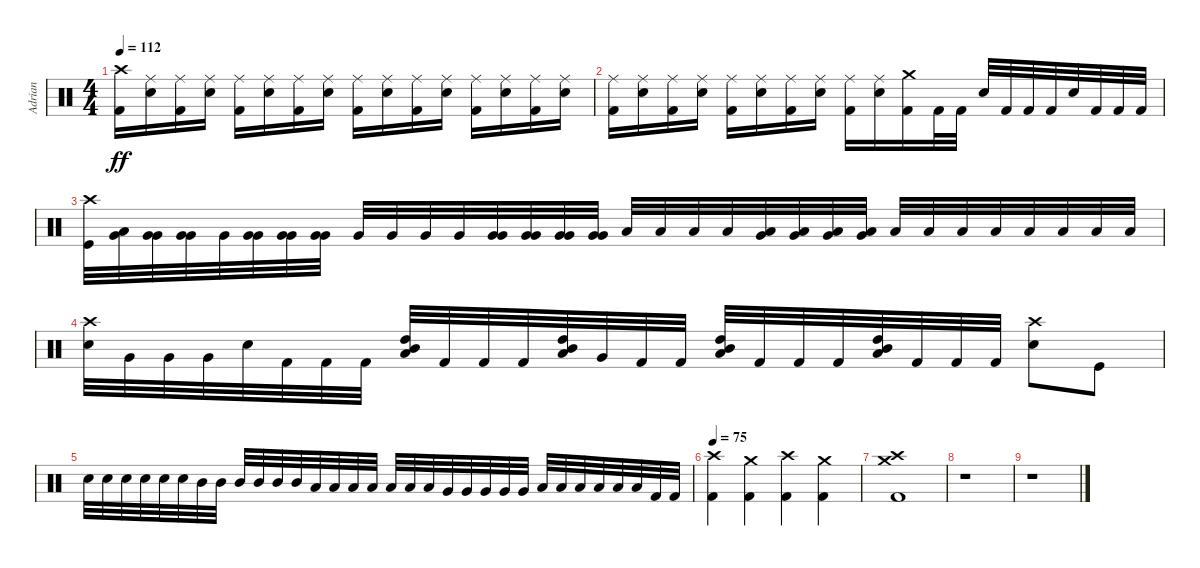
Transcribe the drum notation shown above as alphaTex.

\track ("Adrian" "Adrian") {instrument percussion}
\staff {score}
\articulation defaults
\ts (4 4)
\tempo 112
\clef neutral
\ks c
("Crash high (hit)" "Kick (hit) 2").16{dy ff} ("Ride (middle)" "Electric Snare (hit)").16 ("Ride (middle)" "Kick (hit) 2").16 ("Ride (middle)" "Electric Snare (hit)").16 ("Ride (middle)" "Kick (hit) 2").16 ("Ride (middle)" "Electric Snare (hit)").16 ("Ride (middle)" "Kick (hit) 2").16 ("Ride (middle)" "Electric Snare (hit)").16 ("Ride (middle)" "Kick (hit) 2").16 ("Ride (middle)" "Electric Snare (hit)").16 ("Ride (middle)" "Kick (hit) 2").16 ("Ride (middle)" "Electric Snare (hit)").16 ("Ride (middle)" "Kick (hit) 2").16 ("Ride (middle)" "Electric Snare (hit)").16 ("Ride (middle)" "Kick (hit) 2").16 ("Ride (middle)" "Electric Snare (hit)").16 |
("Ride (middle)" "Kick (hit) 2").16 ("Ride (middle)" "Electric Snare (hit)").16 ("Ride (middle)" "Kick (hit) 2").16 ("Ride (middle)" "Electric Snare (hit)").16 ("Ride (middle)" "Kick (hit) 2").16 ("Ride (middle)" "Electric Snare (hit)").16 ("Ride (middle)" "Kick (hit) 2").16 ("Ride (middle)" "Electric Snare (hit)").16 ("Ride (middle)" "Kick (hit) 2").16 ("Ride (middle)" "Electric Snare (hit)").16 ("Crash medium (hit)" "Kick (hit) 2").16 "Kick (hit) 2".32 "Kick (hit) 2".32 "Electric Snare (hit)".32 "Kick (hit) 2".32 "Kick (hit) 2".32 "Kick (hit) 2".32 "Electric Snare (hit)".32 "Kick (hit) 2".32 "Kick (hit) 2".32 "Kick (hit) 2".32 |
("Crash high (hit)" "Kick (hit)").32 ("Very Low Tom (hit)" "Low Tom (hit)").32 ("Very Low Tom (hit)" "Very Low Tom (hit)").32 ("Very Low Tom (hit)" "Very Low Tom (hit)").32 "Very Low Tom (hit)".32 ("Very Low Tom (hit)" "Very Low Tom (hit)").32 ("Very Low Tom (hit)" "Very Low Tom (hit)").32 ("Very Low Tom (hit)" "Very Low Tom (hit)").32 "Very Low Tom (hit)".32 "Very Low Tom (hit)".32 "Very Low Tom (hit)".32 "Very Low Tom (hit)".32 ("Very Low Tom (hit)" "Very Low Tom (hit)").32 ("Very Low Tom (hit)" "Very Low Tom (hit)").32 ("Very Low Tom (hit)" "Very Low Tom (hit)").32 ("Very Low Tom (hit)" "Very Low Tom (hit)").32 "Low Floor Tom (hit)".32 "Low Floor Tom (hit)".32 "Low Floor Tom (hit)".32 "Low Floor Tom (hit)".32 ("Low Floor Tom (hit)" "Very Low Tom (hit)").32 ("Low Floor Tom (hit)" "Very Low Tom (hit)").32 ("Low Floor Tom (hit)" "Very Low Tom (hit)").32 ("Low Floor Tom (hit)" "Very Low Tom (hit)").32 "Low Floor Tom (hit)".32 "Low Floor Tom (hit)".32 "Low Floor Tom (hit)".32 "Low Floor Tom (hit)".32 "Low Floor Tom (hit)".32 "Low Floor Tom (hit)".32 "Low Floor Tom (hit)".32 "Low Floor Tom (hit)".32 |
("Electric Snare (hit)" "Crash high (hit)").32 "Very Low Tom (hit)".32 "Very Low Tom (hit)".32 "Very Low Tom (hit)".32 "Electric Snare (hit)".32 "Kick (hit) 2".32 "Kick (hit) 2".32 "Kick (hit) 2".32 ("High Tom (hit)" "Low Tom (hit)" "Mid Tom (hit)").32 "Kick (hit) 2".32 "Kick (hit) 2".32 "Kick (hit) 2".32 ("High Tom (hit)" "Low Tom (hit)" "Mid Tom (hit)").32 "Very Low Tom (hit)".32 "Kick (hit) 2".32 "Kick (hit) 2".32 ("High Tom (hit)" "Low Tom (hit)" "Mid Tom (hit)").32 "Kick (hit) 2".32 "Kick (hit) 2".32 "Kick (hit) 2".32 ("High Tom (hit)" "Low Tom (hit)" "Mid Tom (hit)").32 "Kick (hit) 2".32 "Kick (hit) 2".32 "Kick (hit) 2".32 ("Electric Snare (hit)" "Crash high (hit)").8 "Kick (hit)".8 |
"Electric Snare (hit)".32 "Electric Snare (hit)".32 "Electric Snare (hit)".32 "Electric Snare (hit)".32 "Electric Snare (hit)".32 "Electric Snare (hit)".32 "Mid Tom (hit)".32 "Mid Tom (hit)".32 "Mid Tom (hit)".32 "Mid Tom (hit)".32 "Mid Tom (hit)".32 "Mid Tom (hit)".32 "Low Tom (hit)".32 "Low Tom (hit)".32 "Low Tom (hit)".32 "Low Tom (hit)".32 "Low Tom (hit)".32 "Low Tom (hit)".32 "Low Tom (hit)".32 "Very Low Tom (hit)".32 "Very Low Tom (hit)".32 "Very Low Tom (hit)".32 "Very Low Tom (hit)".32 "Very Low Tom (hit)".32 "Low Floor Tom (hit)".32 "Low Floor Tom (hit)".32 "Low Floor Tom (hit)".32 "Low Floor Tom (hit)".32 "Low Floor Tom (hit)".32 "Low Floor Tom (hit)".32 "Kick (hit) 2".32 "Kick (hit) 2".32 |
\tempo 75
("Crash high (hit)" "Kick (hit) 2").4 ("Crash medium (hit)" "Kick (hit) 2").4 ("Crash high (hit)" "Kick (hit) 2").4 ("Crash medium (hit)" "Kick (hit) 2").4 |
("Crash high (hit)" "Kick (hit) 2" "Crash medium (hit)").1 |
r.1 |
r.1
